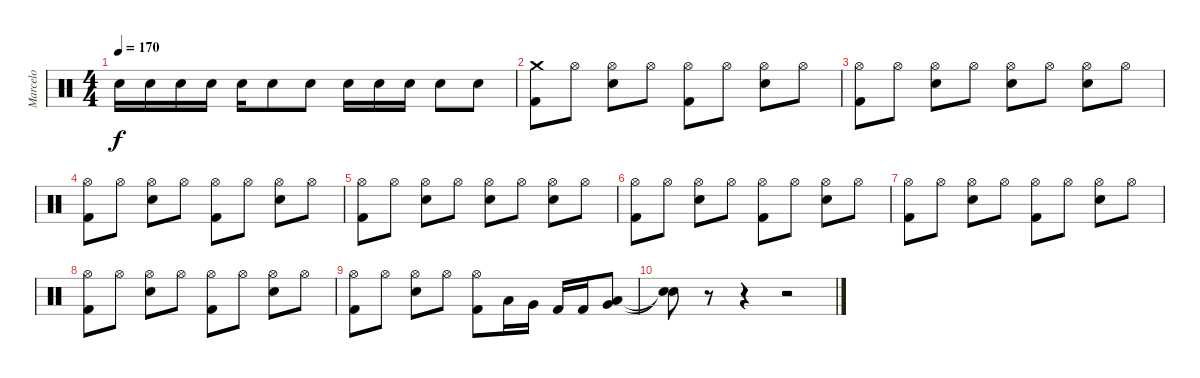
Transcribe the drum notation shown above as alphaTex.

\track ("Marcelo" "Marcelo") {instrument percussion}
\staff {score}
\articulation defaults
\ts (4 4)
\tempo 170
\clef neutral
\ks c "Electric Snare (hit)".16{dy f} "Electric Snare (hit)".16 "Electric Snare (hit)".16 "Electric Snare (hit)".16 "Electric Snare (hit)".16 "Electric Snare (hit)".8 "Electric Snare (hit)".8 "Electric Snare (hit)".16 "Electric Snare (hit)".16 "Electric Snare (hit)".16 "Electric Snare (hit)".8 "Electric Snare (hit)".8
|
("Crash medium (hit)" "Kick (hit) 2").8 "Hi-Hat (open)".8 ("Hi-Hat (open)" "Electric Snare (hit)").8 "Hi-Hat (open)".8 ("Hi-Hat (open)" "Kick (hit) 2").8 "Hi-Hat (open)".8 ("Hi-Hat (open)" "Electric Snare (hit)").8 "Hi-Hat (open)".8 |
("Hi-Hat (open)" "Kick (hit) 2").8 "Hi-Hat (open)".8 ("Hi-Hat (open)" "Electric Snare (hit)").8 "Hi-Hat (open)".8 ("Hi-Hat (open)" "Electric Snare (hit)").8 "Hi-Hat (open)".8 ("Hi-Hat (open)" "Electric Snare (hit)").8 "Hi-Hat (open)".8 |
("Hi-Hat (open)" "Kick (hit) 2").8 "Hi-Hat (open)".8 ("Hi-Hat (open)" "Electric Snare (hit)").8 "Hi-Hat (open)".8 ("Hi-Hat (open)" "Kick (hit) 2").8 "Hi-Hat (open)".8 ("Hi-Hat (open)" "Electric Snare (hit)").8 "Hi-Hat (open)".8 |
("Hi-Hat (open)" "Kick (hit) 2").8 "Hi-Hat (open)".8 ("Hi-Hat (open)" "Electric Snare (hit)").8 "Hi-Hat (open)".8 ("Hi-Hat (open)" "Electric Snare (hit)").8 "Hi-Hat (open)".8 ("Hi-Hat (open)" "Electric Snare (hit)").8 "Hi-Hat (open)".8 |
("Hi-Hat (open)" "Kick (hit) 2").8 "Hi-Hat (open)".8 ("Hi-Hat (open)" "Electric Snare (hit)").8 "Hi-Hat (open)".8 ("Hi-Hat (open)" "Kick (hit) 2").8 "Hi-Hat (open)".8 ("Hi-Hat (open)" "Electric Snare (hit)").8 "Hi-Hat (open)".8 |
("Hi-Hat (open)" "Kick (hit) 2").8 "Hi-Hat (open)".8 ("Hi-Hat (open)" "Electric Snare (hit)").8 "Hi-Hat (open)".8 ("Hi-Hat (open)" "Kick (hit) 2").8 "Hi-Hat (open)".8 ("Hi-Hat (open)" "Electric Snare (hit)").8 "Hi-Hat (open)".8 |
("Hi-Hat (open)" "Kick (hit) 2").8 "Hi-Hat (open)".8 ("Hi-Hat (open)" "Electric Snare (hit)").8 "Hi-Hat (open)".8 ("Hi-Hat (open)" "Kick (hit) 2").8 "Hi-Hat (open)".8 ("Hi-Hat (open)" "Electric Snare (hit)").8 "Hi-Hat (open)".8 |
("Hi-Hat (open)" "Kick (hit) 2").8 "Hi-Hat (open)".8 ("Hi-Hat (open)" "Electric Snare (hit)").8 "Hi-Hat (open)".8 ("Hi-Hat (open)" "Kick (hit) 2").8 "Low Tom (hit)".16 "Very Low Tom (hit)".16 "Kick (hit) 2".16 "Kick (hit) 2".16 ("Very Low Tom (hit)" "Low Floor Tom (hit)").8 |
("Snare (hit)"{t} "Snare (hit)"{t}).8 r.8 r.4 r.2
